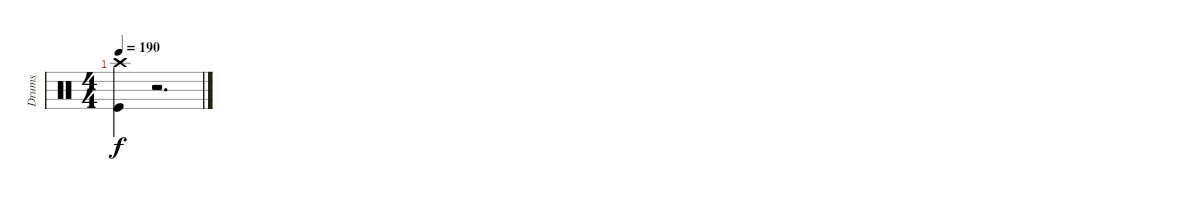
\track ("Drums" "Drums") {instrument percussion}
\staff {score}
\articulation defaults
\ts (4 4)
\tempo 190
\clef neutral
\ks c
("Crash high (hit)" "Kick (hit)").4{dy f} r.2{d volume 0}
